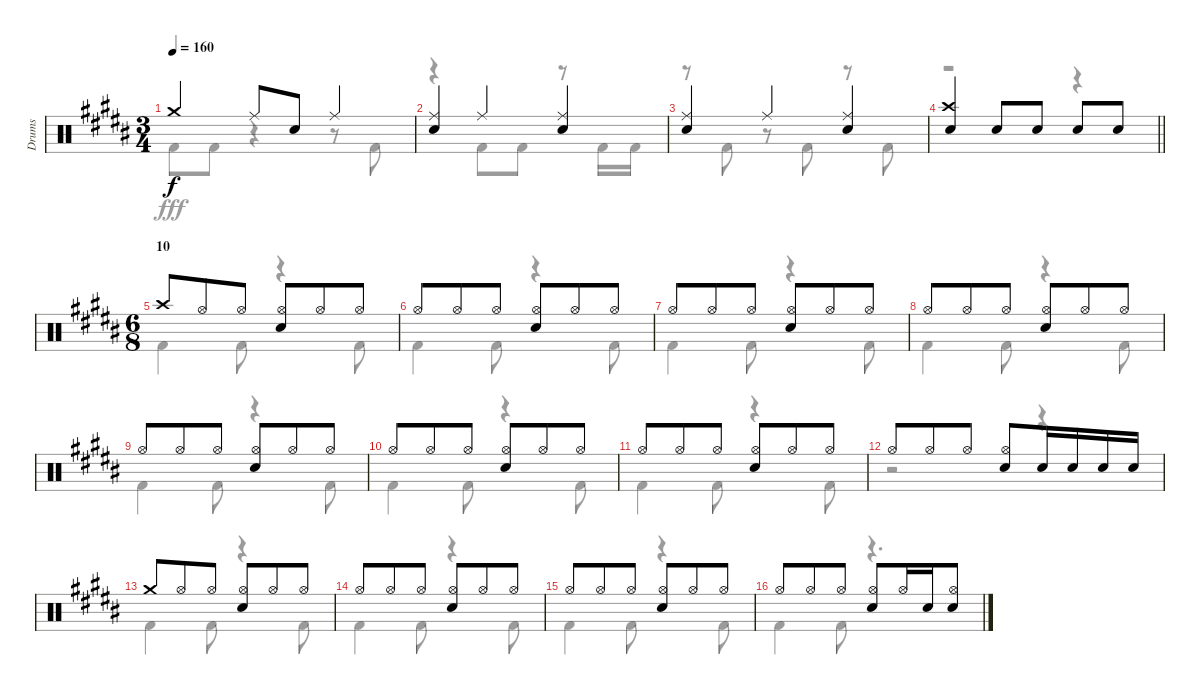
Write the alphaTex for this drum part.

\track ("Drums" "Drums") {instrument percussion}
\staff {score}
\articulation defaults
\voice
\ts (3 4)
\tempo 160
\clef neutral
\ks b "Crash medium (hit)".4{dy f} "Ride (middle)".8 "Snare (hit) 2".8 "Ride (middle)".4
|
("Ride (middle)" "Snare (hit) 2").4 "Ride (middle)".4 ("Ride (middle)" "Snare (hit) 2").4 |
("Ride (middle)" "Snare (hit) 2").4 "Ride (middle)".4 ("Ride (middle)" "Snare (hit) 2").4 |
\barLineRight lightlight
("Crash high (hit)" "Snare (hit) 2").4 "Snare (hit) 2".8 "Snare (hit) 2".8 "Snare (hit) 2".8 "Snare (hit) 2".8 |
\ts (6 8)
\section ("" "10")
"Crash high (hit)".8 "Hi-Hat (open)".8 "Hi-Hat (open)".8 ("Hi-Hat (open)" "Snare (hit) 2").8 "Hi-Hat (open)".8 "Hi-Hat (open)".8 |
"Hi-Hat (open)".8 "Hi-Hat (open)".8 "Hi-Hat (open)".8 ("Hi-Hat (open)" "Snare (hit) 2").8 "Hi-Hat (open)".8 "Hi-Hat (open)".8 |
"Hi-Hat (open)".8 "Hi-Hat (open)".8 "Hi-Hat (open)".8 ("Hi-Hat (open)" "Snare (hit) 2").8 "Hi-Hat (open)".8 "Hi-Hat (open)".8 |
"Hi-Hat (open)".8 "Hi-Hat (open)".8 "Hi-Hat (open)".8 ("Hi-Hat (open)" "Snare (hit) 2").8 "Hi-Hat (open)".8 "Hi-Hat (open)".8 |
"Hi-Hat (open)".8 "Hi-Hat (open)".8 "Hi-Hat (open)".8 ("Hi-Hat (open)" "Snare (hit) 2").8 "Hi-Hat (open)".8 "Hi-Hat (open)".8 |
"Hi-Hat (open)".8 "Hi-Hat (open)".8 "Hi-Hat (open)".8 ("Hi-Hat (open)" "Snare (hit) 2").8 "Hi-Hat (open)".8 "Hi-Hat (open)".8 |
"Hi-Hat (open)".8 "Hi-Hat (open)".8 "Hi-Hat (open)".8 ("Hi-Hat (open)" "Snare (hit) 2").8 "Hi-Hat (open)".8 "Hi-Hat (open)".8 |
"Hi-Hat (open)".8 "Hi-Hat (open)".8 "Hi-Hat (open)".8 ("Hi-Hat (open)" "Snare (hit) 2").8 "Snare (hit) 2".16 "Snare (hit) 2".16 "Snare (hit) 2".16 "Snare (hit) 2".16 |
"Crash medium (hit)".8 "Hi-Hat (open)".8 "Hi-Hat (open)".8 ("Hi-Hat (open)" "Snare (hit) 2").8 "Hi-Hat (open)".8 "Hi-Hat (open)".8 |
"Hi-Hat (open)".8 "Hi-Hat (open)".8 "Hi-Hat (open)".8 ("Hi-Hat (open)" "Snare (hit) 2").8 "Hi-Hat (open)".8 "Hi-Hat (open)".8 |
"Hi-Hat (open)".8 "Hi-Hat (open)".8 "Hi-Hat (open)".8 ("Hi-Hat (open)" "Snare (hit) 2").8 "Hi-Hat (open)".8 "Hi-Hat (open)".8 |
"Hi-Hat (open)".8 "Hi-Hat (open)".8 "Hi-Hat (open)".8 ("Hi-Hat (open)" "Snare (hit) 2").8 "Hi-Hat (open)".16 "Snare (hit) 2".16 ("Hi-Hat (open)" "Snare (hit) 2").8
\voice
\clef neutral
\ottava regular
\simile none
\ks b "Kick (hit) 2".8{dy fff} "Kick (hit) 2".8
r.4 r.8 "Kick (hit) 2".8 |
r.4 "Kick (hit) 2".8 "Kick (hit) 2".8 r.8 "Kick (hit) 2".16 "Kick (hit) 2".16 |
r.8 "Kick (hit) 2".8 r.8 "Kick (hit) 2".8 r.8 "Kick (hit) 2".8 |
\barLineRight lightlight
r.2 r.4 |
"Kick (hit) 2".4 "Kick (hit) 2".8 r.4 "Kick (hit) 2".8 |
"Kick (hit) 2".4 "Kick (hit) 2".8 r.4 "Kick (hit) 2".8 |
"Kick (hit) 2".4 "Kick (hit) 2".8 r.4 "Kick (hit) 2".8 |
"Kick (hit) 2".4 "Kick (hit) 2".8 r.4 "Kick (hit) 2".8 |
"Kick (hit) 2".4 "Kick (hit) 2".8 r.4 "Kick (hit) 2".8 |
"Kick (hit) 2".4 "Kick (hit) 2".8 r.4 "Kick (hit) 2".8 |
"Kick (hit) 2".4 "Kick (hit) 2".8 r.4 "Kick (hit) 2".8 |
r.2 r.4 |
"Kick (hit) 2".4 "Kick (hit) 2".8 r.4 "Kick (hit) 2".8 |
"Kick (hit) 2".4 "Kick (hit) 2".8 r.4 "Kick (hit) 2".8 |
"Kick (hit) 2".4 "Kick (hit) 2".8 r.4 "Kick (hit) 2".8 |
"Kick (hit) 2".4 "Kick (hit) 2".8 r.4{d}
